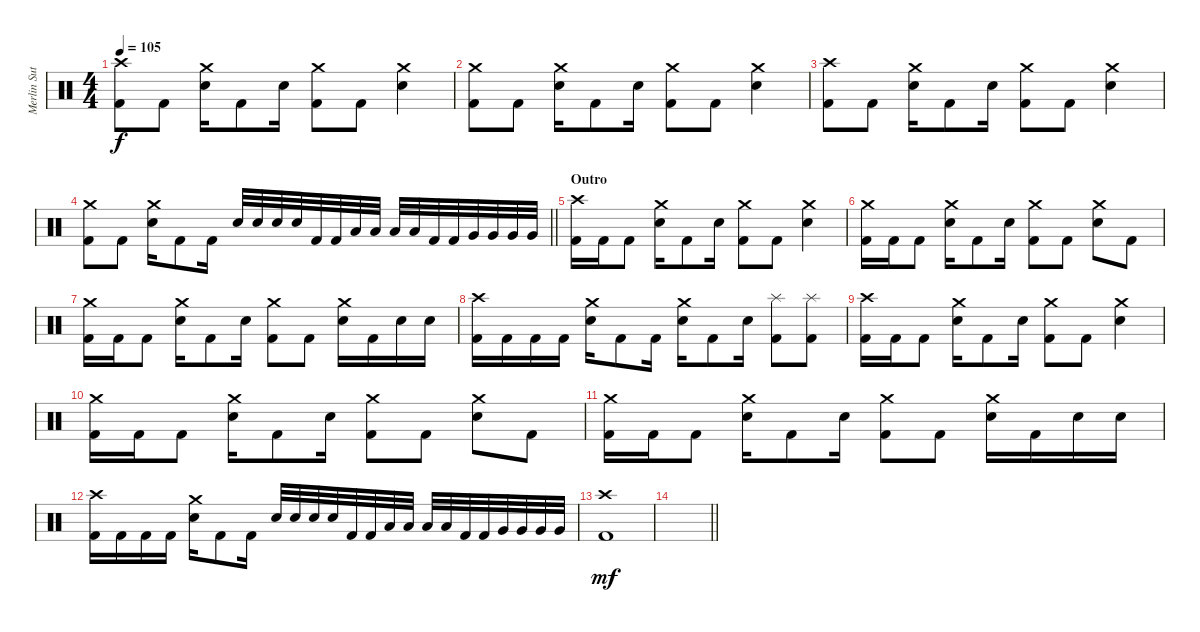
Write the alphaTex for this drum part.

\track ("Merlin Sutter" "Merlin Sut") {instrument percussion}
\staff {score}
\articulation defaults
\ts (4 4)
\tempo 105
\clef neutral
\ks c
("Crash high (hit)" "Kick (hit) 2").8{dy f} "Kick (hit) 2".8 ("Crash medium (hit)" "Electric Snare (hit)").16 "Kick (hit) 2".8 "Electric Snare (hit)".16 ("Crash medium (hit)" "Kick (hit) 2").8 "Kick (hit) 2".8 ("Crash medium (hit)" "Electric Snare (hit)").4 |
("Crash medium (hit)" "Kick (hit) 2").8 "Kick (hit) 2".8 ("Crash medium (hit)" "Electric Snare (hit)").16 "Kick (hit) 2".8 "Electric Snare (hit)".16 ("Crash medium (hit)" "Kick (hit) 2").8 "Kick (hit) 2".8 ("Crash medium (hit)" "Electric Snare (hit)").4 |
("Crash high (hit)" "Kick (hit) 2").8 "Kick (hit) 2".8 ("Crash medium (hit)" "Electric Snare (hit)").16 "Kick (hit) 2".8 "Electric Snare (hit)".16 ("Crash medium (hit)" "Kick (hit) 2").8 "Kick (hit) 2".8 ("Crash medium (hit)" "Electric Snare (hit)").4 |
\barLineRight lightlight
("Crash medium (hit)" "Kick (hit) 2").8 "Kick (hit) 2".8 ("Crash medium (hit)" "Electric Snare (hit)").16 "Kick (hit) 2".8 "Kick (hit) 2".16 "Electric Snare (hit)".32 "Electric Snare (hit)".32 "Electric Snare (hit)".32 "Electric Snare (hit)".32 "Kick (hit) 2".32 "Kick (hit) 2".32 "Low Tom (hit)".32 "Low Tom (hit)".32 "Low Tom (hit)".32 "Low Tom (hit)".32 "Kick (hit) 2".32 "Kick (hit) 2".32 "Very Low Tom (hit)".32 "Very Low Tom (hit)".32 "Very Low Tom (hit)".32 "Very Low Tom (hit)".32 |
\section ("" "Outro")
("Crash high (hit)" "Kick (hit) 2").16 "Kick (hit) 2".16 "Kick (hit) 2".8 ("Crash medium (hit)" "Electric Snare (hit)").16 "Kick (hit) 2".8 "Electric Snare (hit)".16 ("Crash medium (hit)" "Kick (hit) 2").8 "Kick (hit) 2".8 ("Crash medium (hit)" "Electric Snare (hit)").4 |
("Crash medium (hit)" "Kick (hit) 2").16 "Kick (hit) 2".16 "Kick (hit) 2".8 ("Crash medium (hit)" "Electric Snare (hit)").16 "Kick (hit) 2".8 "Electric Snare (hit)".16 ("Crash medium (hit)" "Kick (hit) 2").8 "Kick (hit) 2".8 ("Crash medium (hit)" "Electric Snare (hit)").8 "Kick (hit) 2".8 |
("Crash medium (hit)" "Kick (hit) 2").16 "Kick (hit) 2".16 "Kick (hit) 2".8 ("Crash medium (hit)" "Electric Snare (hit)").16 "Kick (hit) 2".8 "Electric Snare (hit)".16 ("Crash medium (hit)" "Kick (hit) 2").8 "Kick (hit) 2".8 ("Crash medium (hit)" "Electric Snare (hit)").16 "Kick (hit) 2".16 "Electric Snare (hit)".16 "Electric Snare (hit)".16 |
("Crash high (hit)" "Kick (hit) 2").16 "Kick (hit) 2".16 "Kick (hit) 2".16 "Kick (hit) 2".16 ("Crash medium (hit)" "Electric Snare (hit)").16 "Kick (hit) 2".8 "Kick (hit) 2".16 ("Crash medium (hit)" "Electric Snare (hit)").16 "Kick (hit) 2".8 "Electric Snare (hit)".16 ("Splash (hit)" "Kick (hit) 2").8 ("Splash (hit)" "Kick (hit) 2").8 |
("Crash high (hit)" "Kick (hit) 2").16 "Kick (hit) 2".16 "Kick (hit) 2".8 ("Crash medium (hit)" "Electric Snare (hit)").16 "Kick (hit) 2".8 "Electric Snare (hit)".16 ("Crash medium (hit)" "Kick (hit) 2").8 "Kick (hit) 2".8 ("Crash medium (hit)" "Electric Snare (hit)").4 |
("Crash medium (hit)" "Kick (hit) 2").16 "Kick (hit) 2".16 "Kick (hit) 2".8 ("Crash medium (hit)" "Electric Snare (hit)").16 "Kick (hit) 2".8 "Electric Snare (hit)".16 ("Crash medium (hit)" "Kick (hit) 2").8 "Kick (hit) 2".8 ("Crash medium (hit)" "Electric Snare (hit)").8 "Kick (hit) 2".8 |
("Crash medium (hit)" "Kick (hit) 2").16 "Kick (hit) 2".16 "Kick (hit) 2".8 ("Crash medium (hit)" "Electric Snare (hit)").16 "Kick (hit) 2".8 "Electric Snare (hit)".16 ("Crash medium (hit)" "Kick (hit) 2").8 "Kick (hit) 2".8 ("Crash medium (hit)" "Electric Snare (hit)").16 "Kick (hit) 2".16 "Electric Snare (hit)".16 "Electric Snare (hit)".16 |
("Crash high (hit)" "Kick (hit) 2").16 "Kick (hit) 2".16 "Kick (hit) 2".16 "Kick (hit) 2".16 ("Crash medium (hit)" "Electric Snare (hit)").16 "Kick (hit) 2".8 "Kick (hit) 2".16 "Electric Snare (hit)".32 "Electric Snare (hit)".32 "Electric Snare (hit)".32 "Electric Snare (hit)".32 "Kick (hit) 2".32 "Kick (hit) 2".32 "Low Tom (hit)".32 "Low Tom (hit)".32 "Low Tom (hit)".32 "Low Tom (hit)".32 "Kick (hit) 2".32 "Kick (hit) 2".32 "Very Low Tom (hit)".32 "Very Low Tom (hit)".32 "Very Low Tom (hit)".32 "Very Low Tom (hit)".32 |
("Crash high (hit)" "Kick (hit) 2").1{dy mf} |
\barLineRight lightlight
